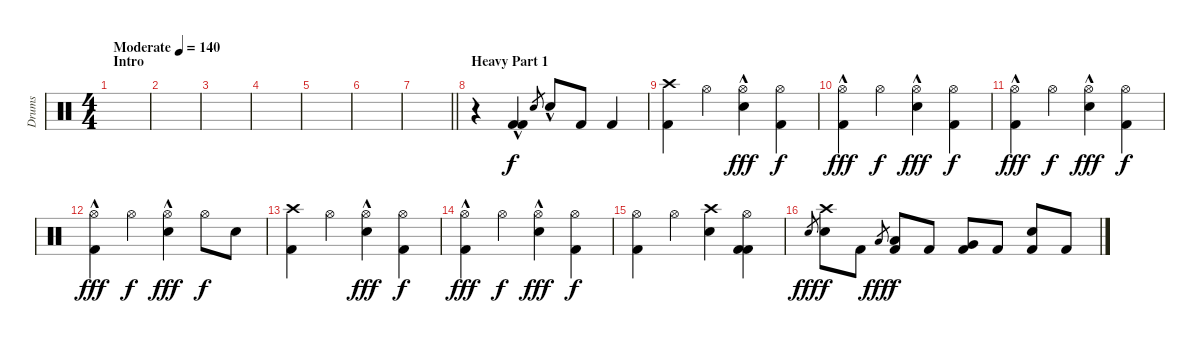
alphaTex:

\track ("Drums" "Drums") {instrument percussion}
\staff {score}
\articulation defaults
\ts (4 4)
\section ("" "Intro")
\tempo (140 "Moderate")
\clef neutral
\ks c
|
|
|
|
|
|
\barLineRight lightlight
|
\section ("" "Heavy Part 1")
r.4 ("Kick (hit) 2" "Kick (hit) 2"{hac}).4 "Electric Snare (hit)".8{gr} "Electric Snare (hit)"{hac}.8 "Kick (hit) 2".8{dy f} "Kick (hit) 2".4 |
("Crash high (hit)" "Kick (hit) 2").4 "Hi-Hat (open)".4 ("Hi-Hat (open)"{hac} "Electric Snare (hit)"{hac}).4{dy fff} ("Hi-Hat (open)" "Kick (hit) 2").4{dy f} |
("Hi-Hat (open)"{hac} "Kick (hit) 2").4{dy fff} "Hi-Hat (open)".4{dy f} ("Hi-Hat (open)"{hac} "Electric Snare (hit)").4{dy fff} ("Hi-Hat (open)" "Kick (hit) 2").4{dy f} |
("Hi-Hat (open)"{hac} "Kick (hit) 2").4{dy fff} "Hi-Hat (open)".4{dy f} ("Hi-Hat (open)"{hac} "Electric Snare (hit)").4{dy fff} ("Hi-Hat (open)" "Kick (hit) 2").4{dy f} |
("Hi-Hat (open)"{hac} "Kick (hit) 2").4{dy fff} "Hi-Hat (open)".4{dy f} ("Hi-Hat (open)"{hac} "Electric Snare (hit)").4{dy fff} "Hi-Hat (open)".8{dy f} "Electric Snare (hit)".8 |
("Crash high (hit)" "Kick (hit) 2").4 "Hi-Hat (open)".4 ("Hi-Hat (open)"{hac} "Electric Snare (hit)").4{dy fff} ("Hi-Hat (open)" "Kick (hit) 2").4{dy f} |
("Hi-Hat (open)"{hac} "Kick (hit) 2").4{dy fff} "Hi-Hat (open)".4{dy f} ("Hi-Hat (open)"{hac} "Electric Snare (hit)").4{dy fff} ("Hi-Hat (open)" "Kick (hit) 2").4{dy f} |
("Hi-Hat (open)" "Kick (hit) 2").4 "Hi-Hat (open)".4 ("Crash high (hit)" "Electric Snare (hit)").4 ("Hi-Hat (open)" "Kick (hit) 2" "Kick (hit) 2").4 |
"Electric Snare (hit)".8{gr dy fff} ("Crash high (hit)" "Electric Snare (hit)").8{dy f} "Kick (hit) 2".8 "Low Tom (hit)".8{gr dy fff} ("Low Tom (hit)" "Kick (hit) 2").8{dy f} "Kick (hit) 2".8 ("Very Low Tom (hit)" "Kick (hit) 2").8 "Kick (hit) 2".8 ("Electric Snare (hit)" "Kick (hit) 2").8 "Kick (hit) 2".8
